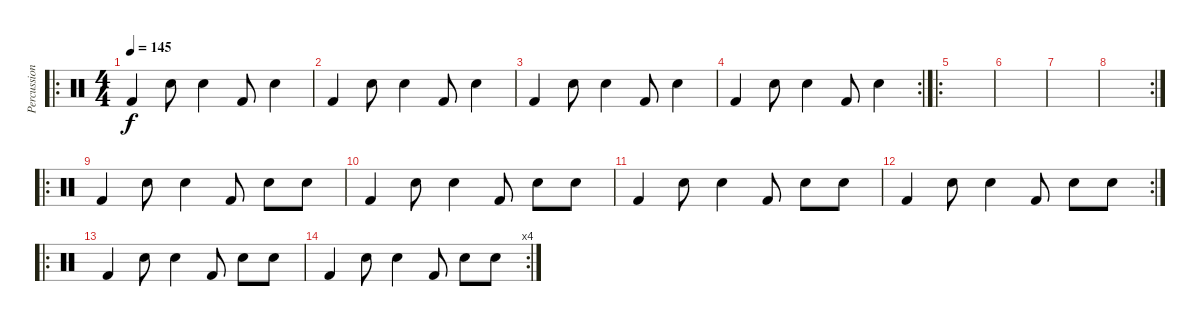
\track ("Percussions" "Percussion") {instrument percussion}
\staff {score}
\articulation defaults
\ro
\ts (4 4)
\tempo 145
\clef neutral
\ks c "Kick (hit) 2".4{dy f} "Snare (hit) 2".8 "Snare (hit) 2".4 "Kick (hit) 2".8 "Snare (hit) 2".4
|
"Kick (hit) 2".4 "Snare (hit) 2".8 "Snare (hit) 2".4 "Kick (hit) 2".8 "Snare (hit) 2".4 |
"Kick (hit) 2".4 "Snare (hit) 2".8 "Snare (hit) 2".4 "Kick (hit) 2".8 "Snare (hit) 2".4 |
\rc 2 "Kick (hit) 2".4 "Snare (hit) 2".8 "Snare (hit) 2".4 "Kick (hit) 2".8 "Snare (hit) 2".4
|
\ro
|
|
|
\rc 2
|
\ro "Kick (hit) 2".4 "Snare (hit) 2".8 "Snare (hit) 2".4 "Kick (hit) 2".8 "Snare (hit) 2".8 "Snare (hit) 2".8
|
"Kick (hit) 2".4 "Snare (hit) 2".8 "Snare (hit) 2".4 "Kick (hit) 2".8 "Snare (hit) 2".8 "Snare (hit) 2".8 |
"Kick (hit) 2".4 "Snare (hit) 2".8 "Snare (hit) 2".4 "Kick (hit) 2".8 "Snare (hit) 2".8 "Snare (hit) 2".8 |
\rc 2 "Kick (hit) 2".4 "Snare (hit) 2".8 "Snare (hit) 2".4 "Kick (hit) 2".8 "Snare (hit) 2".8 "Snare (hit) 2".8
|
\ro "Kick (hit) 2".4 "Snare (hit) 2".8 "Snare (hit) 2".4 "Kick (hit) 2".8 "Snare (hit) 2".8 "Snare (hit) 2".8
|
\rc 4 "Kick (hit) 2".4 "Snare (hit) 2".8 "Snare (hit) 2".4 "Kick (hit) 2".8 "Snare (hit) 2".8 "Snare (hit) 2".8
